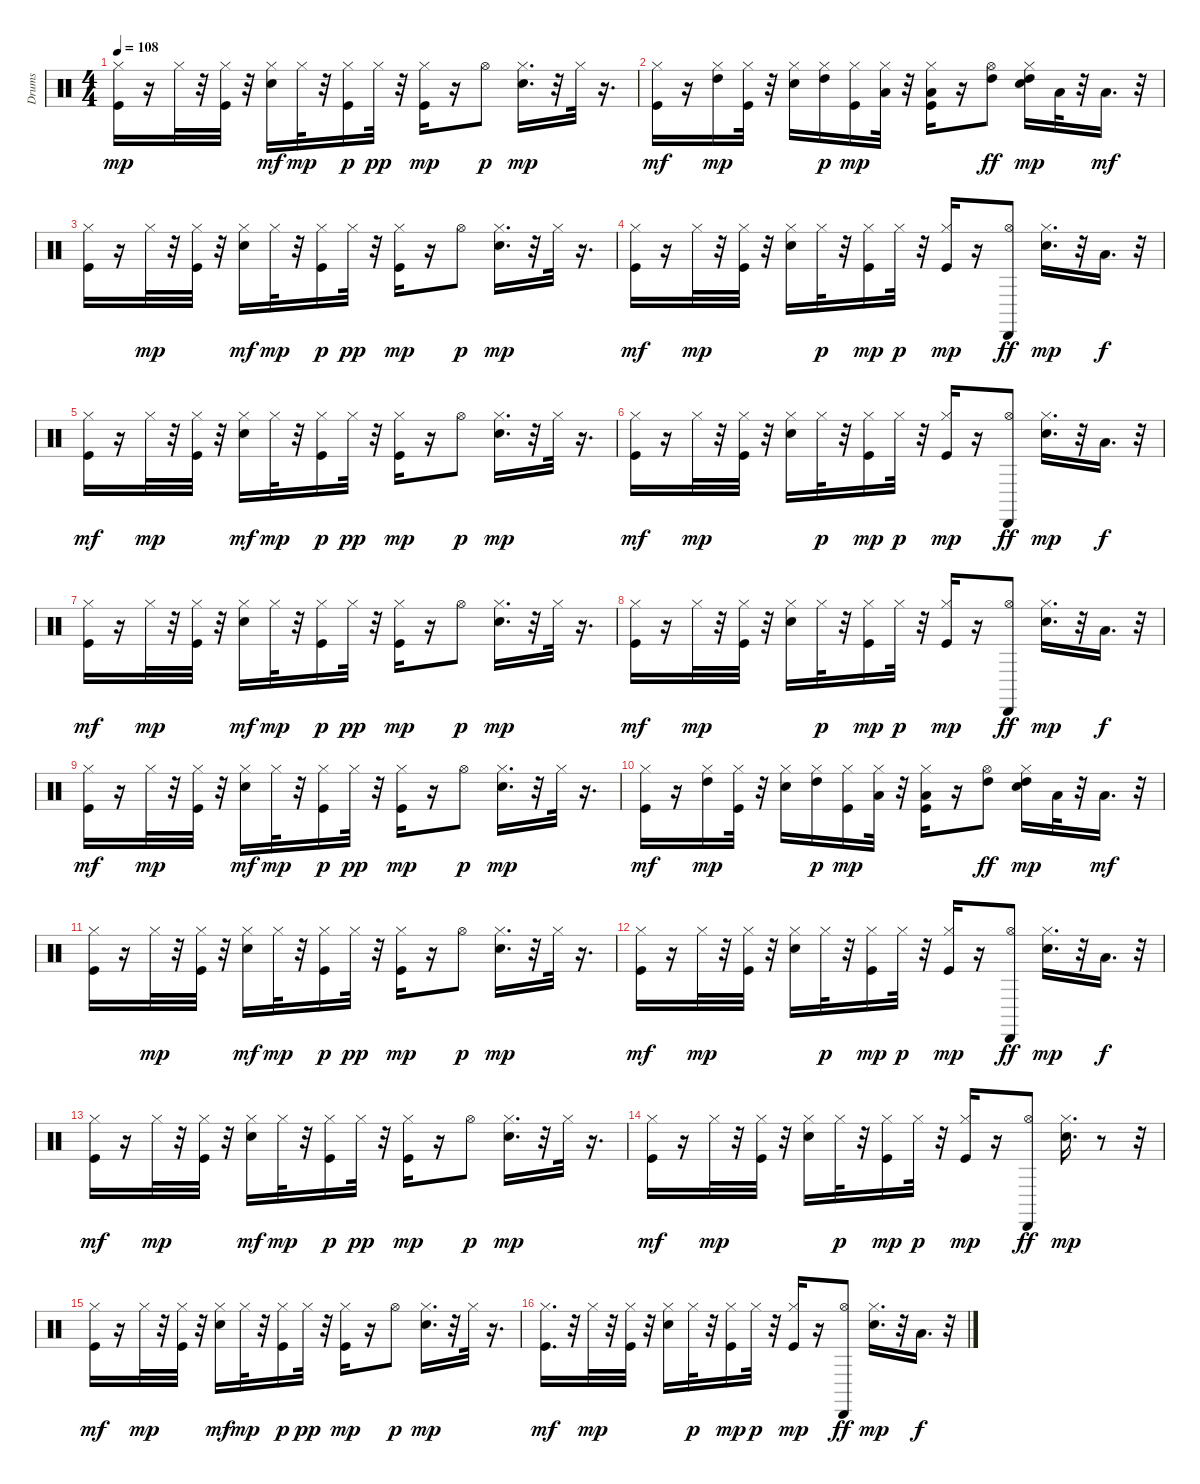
\track ("Drums" "Drums") {instrument percussion}
\staff {score}
\articulation defaults
\ts (4 4)
\tempo 108
\clef neutral
\ks c
("Kick (hit)" "Hi-Hat (closed)").16{dy mp} r.16 "Hi-Hat (closed)".32 r.32 ("Hi-Hat (closed)" "Kick (hit)").32 r.32 ("Hi-Hat (closed)" "Snare (hit) 2").16{dy mf} "Hi-Hat (closed)".32{dy mp} r.32 ("Hi-Hat (closed)" "Kick (hit)").16{dy p} "Hi-Hat (closed)".32{dy pp} r.32 ("Hi-Hat (closed)" "Kick (hit)").16{dy mp} r.16 "Hi-Hat (open)".8{dy p} ("Hi-Hat (closed)" "Snare (hit) 2").16{d dy mp} r.32 "Hi-Hat (closed)".32 r.16{d} |
("Hi-Hat (closed)" "Kick (hit)").16{dy mf} r.16 ("Hi-Hat (closed)" "High Tom (hit)").16{dy mp} ("Hi-Hat (closed)" "Kick (hit)").32 r.32 ("Hi-Hat (closed)" "Snare (hit) 2").16 ("Hi-Hat (closed)" "High Tom (hit)").16{dy p} ("Hi-Hat (closed)" "Kick (hit)").16{dy mp} ("Hi-Hat (closed)" "Low Tom (hit)").32 r.32 ("Hi-Hat (closed)" "Low Floor Tom (hit)" "Kick (hit)").16 r.16 ("Hi-Hat (open)" "High Tom (hit)").8{dy ff} ("Hi-Hat (closed)" "Snare (hit) 2" "High Tom (hit)").16{dy mp} "Low Tom (hit)".32 r.32 "Low Floor Tom (hit)".16{d dy mf} r.32 |
("Hi-Hat (closed)" "Kick (hit)").16 r.16 "Hi-Hat (closed)".32{dy mp} r.32 ("Hi-Hat (closed)" "Kick (hit)").32 r.32 ("Hi-Hat (closed)" "Snare (hit) 2").16{dy mf} "Hi-Hat (closed)".32{dy mp} r.32 ("Hi-Hat (closed)" "Kick (hit)").16{dy p} "Hi-Hat (closed)".32{dy pp} r.32 ("Hi-Hat (closed)" "Kick (hit)").16{dy mp} r.16 "Hi-Hat (open)".8{dy p} ("Hi-Hat (closed)" "Snare (hit) 2").16{d dy mp} r.32 "Hi-Hat (closed)".32 r.16{d} |
("Hi-Hat (closed)" "Kick (hit)").16{dy mf} r.16 "Hi-Hat (closed)".32{dy mp} r.32 ("Hi-Hat (closed)" "Kick (hit)").32 r.32 ("Hi-Hat (closed)" "Snare (hit) 2").16 "Hi-Hat (closed)".32{dy p} r.32 ("Hi-Hat (closed)" "Kick (hit)").16{dy mp} "Hi-Hat (closed)".32{dy p} r.32 ("Hi-Hat (closed)" "Kick (hit)").16{dy mp} r.16 ("Hi-Hat (open)" "Cabasa (hit)").8{dy ff} ("Hi-Hat (closed)" "Snare (hit) 2").16{d dy mp} r.32 "Low Floor Tom (hit)".16{d dy f} r.32 |
("Hi-Hat (closed)" "Kick (hit)").16{dy mf} r.16 "Hi-Hat (closed)".32{dy mp} r.32 ("Hi-Hat (closed)" "Kick (hit)").32 r.32 ("Hi-Hat (closed)" "Snare (hit) 2").16{dy mf} "Hi-Hat (closed)".32{dy mp} r.32 ("Hi-Hat (closed)" "Kick (hit)").16{dy p} "Hi-Hat (closed)".32{dy pp} r.32 ("Hi-Hat (closed)" "Kick (hit)").16{dy mp} r.16 "Hi-Hat (open)".8{dy p} ("Hi-Hat (closed)" "Snare (hit) 2").16{d dy mp} r.32 "Hi-Hat (closed)".32 r.16{d} |
("Hi-Hat (closed)" "Kick (hit)").16{dy mf} r.16 "Hi-Hat (closed)".32{dy mp} r.32 ("Hi-Hat (closed)" "Kick (hit)").32 r.32 ("Hi-Hat (closed)" "Snare (hit) 2").16 "Hi-Hat (closed)".32{dy p} r.32 ("Hi-Hat (closed)" "Kick (hit)").16{dy mp} "Hi-Hat (closed)".32{dy p} r.32 ("Hi-Hat (closed)" "Kick (hit)").16{dy mp} r.16 ("Hi-Hat (open)" "Cabasa (hit)").8{dy ff} ("Hi-Hat (closed)" "Snare (hit) 2").16{d dy mp} r.32 "Low Floor Tom (hit)".16{d dy f} r.32 |
("Hi-Hat (closed)" "Kick (hit)").16{dy mf} r.16 "Hi-Hat (closed)".32{dy mp} r.32 ("Hi-Hat (closed)" "Kick (hit)").32 r.32 ("Hi-Hat (closed)" "Snare (hit) 2").16{dy mf} "Hi-Hat (closed)".32{dy mp} r.32 ("Hi-Hat (closed)" "Kick (hit)").16{dy p} "Hi-Hat (closed)".32{dy pp} r.32 ("Hi-Hat (closed)" "Kick (hit)").16{dy mp} r.16 "Hi-Hat (open)".8{dy p} ("Hi-Hat (closed)" "Snare (hit) 2").16{d dy mp} r.32 "Hi-Hat (closed)".32 r.16{d} |
("Hi-Hat (closed)" "Kick (hit)").16{dy mf} r.16 "Hi-Hat (closed)".32{dy mp} r.32 ("Hi-Hat (closed)" "Kick (hit)").32 r.32 ("Hi-Hat (closed)" "Snare (hit) 2").16 "Hi-Hat (closed)".32{dy p} r.32 ("Hi-Hat (closed)" "Kick (hit)").16{dy mp} "Hi-Hat (closed)".32{dy p} r.32 ("Hi-Hat (closed)" "Kick (hit)").16{dy mp} r.16 ("Hi-Hat (open)" "Cabasa (hit)").8{dy ff} ("Hi-Hat (closed)" "Snare (hit) 2").16{d dy mp} r.32 "Low Floor Tom (hit)".16{d dy f} r.32 |
("Hi-Hat (closed)" "Kick (hit)").16{dy mf} r.16 "Hi-Hat (closed)".32{dy mp} r.32 ("Hi-Hat (closed)" "Kick (hit)").32 r.32 ("Hi-Hat (closed)" "Snare (hit) 2").16{dy mf} "Hi-Hat (closed)".32{dy mp} r.32 ("Hi-Hat (closed)" "Kick (hit)").16{dy p} "Hi-Hat (closed)".32{dy pp} r.32 ("Hi-Hat (closed)" "Kick (hit)").16{dy mp} r.16 "Hi-Hat (open)".8{dy p} ("Hi-Hat (closed)" "Snare (hit) 2").16{d dy mp} r.32 "Hi-Hat (closed)".32 r.16{d} |
("Hi-Hat (closed)" "Kick (hit)").16{dy mf} r.16 ("Hi-Hat (closed)" "High Tom (hit)").16{dy mp} ("Hi-Hat (closed)" "Kick (hit)").32 r.32 ("Hi-Hat (closed)" "Snare (hit) 2").16 ("Hi-Hat (closed)" "High Tom (hit)").16{dy p} ("Hi-Hat (closed)" "Kick (hit)").16{dy mp} ("Hi-Hat (closed)" "Low Tom (hit)").32 r.32 ("Hi-Hat (closed)" "Low Floor Tom (hit)" "Kick (hit)").16 r.16 ("Hi-Hat (open)" "High Tom (hit)").8{dy ff} ("Hi-Hat (closed)" "Snare (hit) 2" "High Tom (hit)").16{dy mp} "Low Tom (hit)".32 r.32 "Low Floor Tom (hit)".16{d dy mf} r.32 |
("Hi-Hat (closed)" "Kick (hit)").16 r.16 "Hi-Hat (closed)".32{dy mp} r.32 ("Hi-Hat (closed)" "Kick (hit)").32 r.32 ("Hi-Hat (closed)" "Snare (hit) 2").16{dy mf} "Hi-Hat (closed)".32{dy mp} r.32 ("Hi-Hat (closed)" "Kick (hit)").16{dy p} "Hi-Hat (closed)".32{dy pp} r.32 ("Hi-Hat (closed)" "Kick (hit)").16{dy mp} r.16 "Hi-Hat (open)".8{dy p} ("Hi-Hat (closed)" "Snare (hit) 2").16{d dy mp} r.32 "Hi-Hat (closed)".32 r.16{d} |
("Hi-Hat (closed)" "Kick (hit)").16{dy mf} r.16 "Hi-Hat (closed)".32{dy mp} r.32 ("Hi-Hat (closed)" "Kick (hit)").32 r.32 ("Hi-Hat (closed)" "Snare (hit) 2").16 "Hi-Hat (closed)".32{dy p} r.32 ("Hi-Hat (closed)" "Kick (hit)").16{dy mp} "Hi-Hat (closed)".32{dy p} r.32 ("Hi-Hat (closed)" "Kick (hit)").16{dy mp} r.16 ("Hi-Hat (open)" "Cabasa (hit)").8{dy ff} ("Hi-Hat (closed)" "Snare (hit) 2").16{d dy mp} r.32 "Low Floor Tom (hit)".16{d dy f} r.32 |
("Hi-Hat (closed)" "Kick (hit)").16{dy mf} r.16 "Hi-Hat (closed)".32{dy mp} r.32 ("Hi-Hat (closed)" "Kick (hit)").32 r.32 ("Hi-Hat (closed)" "Snare (hit) 2").16{dy mf} "Hi-Hat (closed)".32{dy mp} r.32 ("Hi-Hat (closed)" "Kick (hit)").16{dy p} "Hi-Hat (closed)".32{dy pp} r.32 ("Hi-Hat (closed)" "Kick (hit)").16{dy mp} r.16 "Hi-Hat (open)".8{dy p} ("Hi-Hat (closed)" "Snare (hit) 2").16{d dy mp} r.32 "Hi-Hat (closed)".32 r.16{d} |
("Hi-Hat (closed)" "Kick (hit)").16{dy mf} r.16 "Hi-Hat (closed)".32{dy mp} r.32 ("Hi-Hat (closed)" "Kick (hit)").32 r.32 ("Hi-Hat (closed)" "Snare (hit) 2").16 "Hi-Hat (closed)".32{dy p} r.32 ("Hi-Hat (closed)" "Kick (hit)").16{dy mp} "Hi-Hat (closed)".32{dy p} r.32 ("Hi-Hat (closed)" "Kick (hit)").16{dy mp} r.16 ("Hi-Hat (open)" "Cabasa (hit)").8{dy ff} ("Snare (hit) 2" "Hi-Hat (closed)").16{d dy mp} r.8 r.32 |
("Hi-Hat (closed)" "Kick (hit)").16{dy mf} r.16 "Hi-Hat (closed)".32{dy mp} r.32 ("Hi-Hat (closed)" "Kick (hit)").32 r.32 ("Hi-Hat (closed)" "Snare (hit) 2").16{dy mf} "Hi-Hat (closed)".32{dy mp} r.32 ("Hi-Hat (closed)" "Kick (hit)").16{dy p} "Hi-Hat (closed)".32{dy pp} r.32 ("Hi-Hat (closed)" "Kick (hit)").16{dy mp} r.16 "Hi-Hat (open)".8{dy p} ("Hi-Hat (closed)" "Snare (hit) 2").16{d dy mp} r.32 "Hi-Hat (closed)".32 r.16{d} |
("Hi-Hat (closed)" "Kick (hit)").16{d dy mf} r.32 "Hi-Hat (closed)".32{dy mp} r.32 ("Hi-Hat (closed)" "Kick (hit)").32 r.32 ("Hi-Hat (closed)" "Snare (hit) 2").16 "Hi-Hat (closed)".32{dy p} r.32 ("Hi-Hat (closed)" "Kick (hit)").16{dy mp} "Hi-Hat (closed)".32{dy p} r.32 ("Hi-Hat (closed)" "Kick (hit)").16{dy mp} r.16 ("Hi-Hat (open)" "Cabasa (hit)").8{dy ff} ("Hi-Hat (closed)" "Snare (hit) 2").16{d dy mp} r.32 "Low Floor Tom (hit)".16{d dy f} r.32
